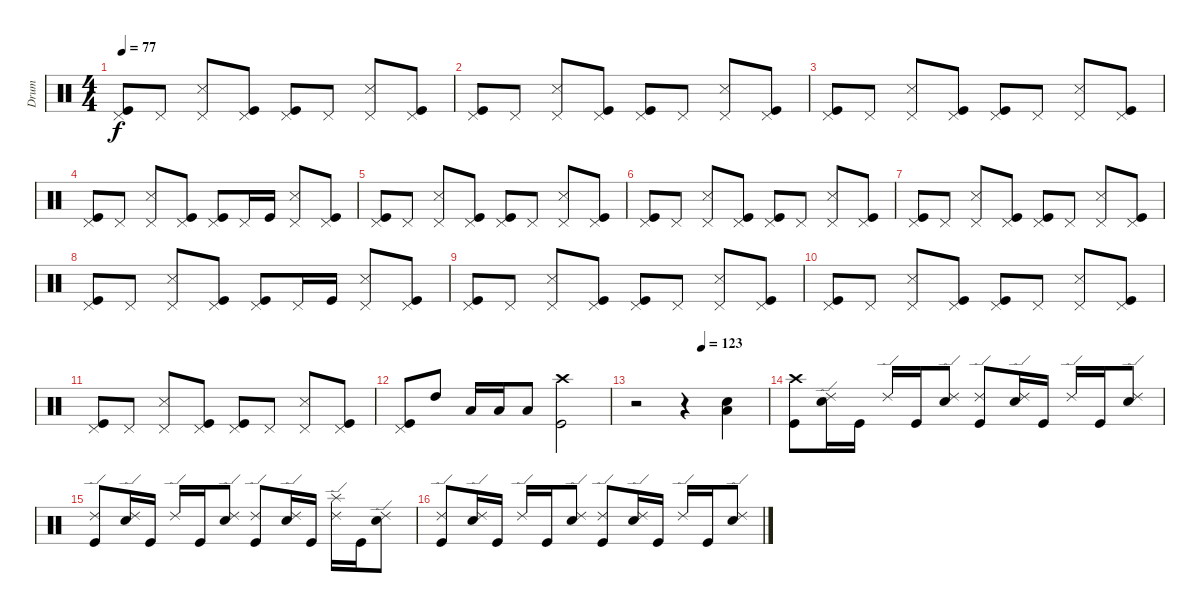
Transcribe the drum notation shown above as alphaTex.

\track ("Drum" "Drum") {instrument percussion}
\staff {score}
\articulation defaults
\ts (4 4)
\tempo 77
\clef neutral
\ks c
("Pedal Hi-Hat (hit)" "Kick (hit)").8{dy f} "Pedal Hi-Hat (hit)".8 ("Pedal Hi-Hat (hit)" "Snare (side stick) 3").8 ("Pedal Hi-Hat (hit)" "Kick (hit)").8 ("Pedal Hi-Hat (hit)" "Kick (hit)").8 "Pedal Hi-Hat (hit)".8 ("Pedal Hi-Hat (hit)" "Snare (side stick) 3").8 ("Pedal Hi-Hat (hit)" "Kick (hit)").8 |
("Pedal Hi-Hat (hit)" "Kick (hit)").8 "Pedal Hi-Hat (hit)".8 ("Pedal Hi-Hat (hit)" "Snare (side stick) 3").8 ("Pedal Hi-Hat (hit)" "Kick (hit)").8 ("Pedal Hi-Hat (hit)" "Kick (hit)").8 "Pedal Hi-Hat (hit)".8 ("Pedal Hi-Hat (hit)" "Snare (side stick) 3").8 ("Pedal Hi-Hat (hit)" "Kick (hit)").8 |
("Pedal Hi-Hat (hit)" "Kick (hit)").8 "Pedal Hi-Hat (hit)".8 ("Pedal Hi-Hat (hit)" "Snare (side stick) 3").8 ("Pedal Hi-Hat (hit)" "Kick (hit)").8 ("Pedal Hi-Hat (hit)" "Kick (hit)").8 "Pedal Hi-Hat (hit)".8 ("Pedal Hi-Hat (hit)" "Snare (side stick) 3").8 ("Pedal Hi-Hat (hit)" "Kick (hit)").8 |
("Pedal Hi-Hat (hit)" "Kick (hit)").8 "Pedal Hi-Hat (hit)".8 ("Pedal Hi-Hat (hit)" "Snare (side stick) 3").8 ("Pedal Hi-Hat (hit)" "Kick (hit)").8 ("Pedal Hi-Hat (hit)" "Kick (hit)").8 "Pedal Hi-Hat (hit)".16 "Kick (hit)".16 ("Pedal Hi-Hat (hit)" "Snare (side stick) 3").8 ("Pedal Hi-Hat (hit)" "Kick (hit)").8 |
("Pedal Hi-Hat (hit)" "Kick (hit)").8 "Pedal Hi-Hat (hit)".8 ("Pedal Hi-Hat (hit)" "Snare (side stick) 3").8 ("Pedal Hi-Hat (hit)" "Kick (hit)").8 ("Pedal Hi-Hat (hit)" "Kick (hit)").8 "Pedal Hi-Hat (hit)".8 ("Pedal Hi-Hat (hit)" "Snare (side stick) 3").8 ("Pedal Hi-Hat (hit)" "Kick (hit)").8 |
("Pedal Hi-Hat (hit)" "Kick (hit)").8 "Pedal Hi-Hat (hit)".8 ("Pedal Hi-Hat (hit)" "Snare (side stick) 3").8 ("Pedal Hi-Hat (hit)" "Kick (hit)").8 ("Pedal Hi-Hat (hit)" "Kick (hit)").8 "Pedal Hi-Hat (hit)".8 ("Pedal Hi-Hat (hit)" "Snare (side stick) 3").8 ("Pedal Hi-Hat (hit)" "Kick (hit)").8 |
("Pedal Hi-Hat (hit)" "Kick (hit)").8 "Pedal Hi-Hat (hit)".8 ("Pedal Hi-Hat (hit)" "Snare (side stick) 3").8 ("Pedal Hi-Hat (hit)" "Kick (hit)").8 ("Pedal Hi-Hat (hit)" "Kick (hit)").8 "Pedal Hi-Hat (hit)".8 ("Pedal Hi-Hat (hit)" "Snare (side stick) 3").8 ("Pedal Hi-Hat (hit)" "Kick (hit)").8 |
("Pedal Hi-Hat (hit)" "Kick (hit)").8 "Pedal Hi-Hat (hit)".8 ("Pedal Hi-Hat (hit)" "Snare (side stick) 3").8 ("Pedal Hi-Hat (hit)" "Kick (hit)").8 ("Pedal Hi-Hat (hit)" "Kick (hit)").8 "Pedal Hi-Hat (hit)".16 "Kick (hit)".16 ("Pedal Hi-Hat (hit)" "Snare (side stick) 3").8 ("Pedal Hi-Hat (hit)" "Kick (hit)").8 |
("Pedal Hi-Hat (hit)" "Kick (hit)").8 "Pedal Hi-Hat (hit)".8 ("Pedal Hi-Hat (hit)" "Snare (side stick) 3").8 ("Pedal Hi-Hat (hit)" "Kick (hit)").8 ("Pedal Hi-Hat (hit)" "Kick (hit)").8 "Pedal Hi-Hat (hit)".8 ("Pedal Hi-Hat (hit)" "Snare (side stick) 3").8 ("Pedal Hi-Hat (hit)" "Kick (hit)").8 |
("Pedal Hi-Hat (hit)" "Kick (hit)").8 "Pedal Hi-Hat (hit)".8 ("Pedal Hi-Hat (hit)" "Snare (side stick) 3").8 ("Pedal Hi-Hat (hit)" "Kick (hit)").8 ("Pedal Hi-Hat (hit)" "Kick (hit)").8 "Pedal Hi-Hat (hit)".8 ("Pedal Hi-Hat (hit)" "Snare (side stick) 3").8 ("Pedal Hi-Hat (hit)" "Kick (hit)").8 |
("Pedal Hi-Hat (hit)" "Kick (hit)").8 "Pedal Hi-Hat (hit)".8 ("Pedal Hi-Hat (hit)" "Snare (side stick) 3").8 ("Pedal Hi-Hat (hit)" "Kick (hit)").8 ("Pedal Hi-Hat (hit)" "Kick (hit)").8 "Pedal Hi-Hat (hit)".8 ("Pedal Hi-Hat (hit)" "Snare (side stick) 3").8 ("Pedal Hi-Hat (hit)" "Kick (hit)").8 |
("Pedal Hi-Hat (hit)" "Kick (hit)").8 "High Tom (hit)".8 "Low Tom (hit)".16 "Low Tom (hit)".16 "Low Tom (hit)".8 ("Crash high (hit)" "Kick (hit)").2 |
\tempo (123 0.5)
r.2 r.4 ("Low Tom (hit)" "Snare (hit) 2").4 |
("Crash high (hit)" "Kick (hit)").8 ("Ride (edge) 2" "Snare (hit) 2").16 "Kick (hit)".16 "Ride (edge) 2".16 "Kick (hit)".16 ("Ride (edge) 2" "Snare (hit) 2").8 ("Ride (edge) 2" "Kick (hit)").8 ("Ride (edge) 2" "Snare (hit) 2").16 "Kick (hit)".16 "Ride (edge) 2".16 "Kick (hit)".16 ("Ride (edge) 2" "Snare (hit) 2").8 |
("Ride (edge) 2" "Kick (hit)").8 ("Ride (edge) 2" "Snare (hit) 2").16 "Kick (hit)".16 "Ride (edge) 2".16 "Kick (hit)".16 ("Ride (edge) 2" "Snare (hit) 2").8 ("Ride (edge) 2" "Kick (hit)").8 ("Ride (edge) 2" "Snare (hit) 2").16 "Kick (hit)".16 ("Ride (edge) 2" "Splash (hit)").16 "Kick (hit)".16 ("Ride (edge) 2" "Snare (hit) 2").8 |
("Ride (edge) 2" "Kick (hit)").8 ("Ride (edge) 2" "Snare (hit) 2").16 "Kick (hit)".16 "Ride (edge) 2".16 "Kick (hit)".16 ("Ride (edge) 2" "Snare (hit) 2").8 ("Ride (edge) 2" "Kick (hit)").8 ("Ride (edge) 2" "Snare (hit) 2").16 "Kick (hit)".16 "Ride (edge) 2".16 "Kick (hit)".16 ("Ride (edge) 2" "Snare (hit) 2").8
